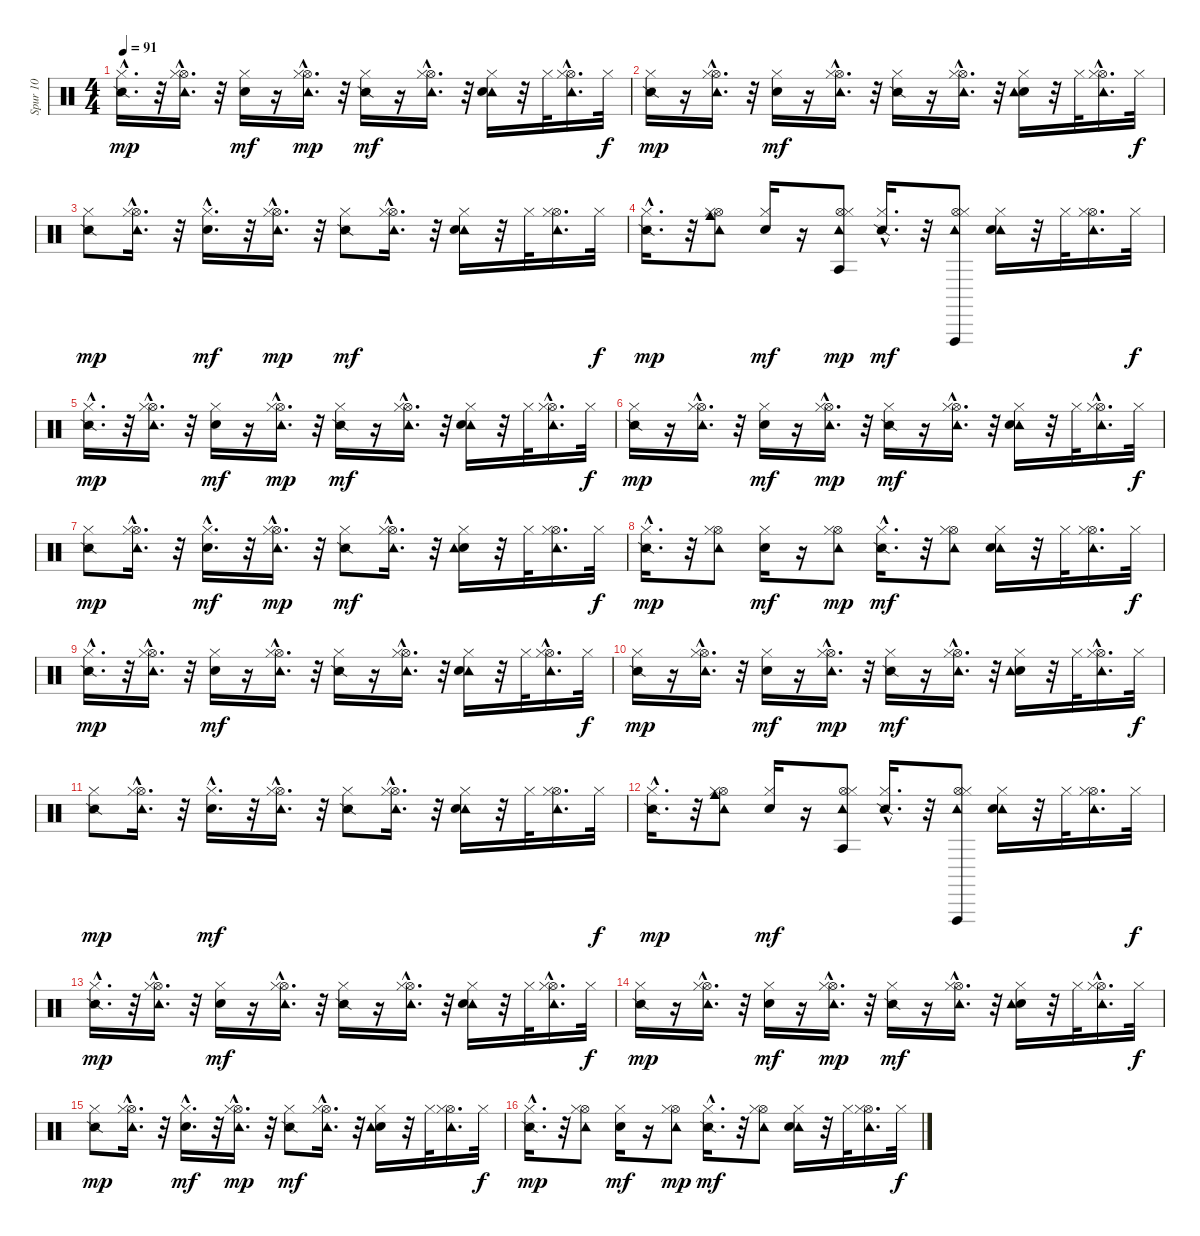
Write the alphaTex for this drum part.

\track ("Spur 10" "Spur 10") {instrument percussion}
\staff {score}
\articulation defaults
\ts (4 4)
\tempo 91
\clef neutral
\ks c
("Snare (side stick) 2"{hac} "Hi-Hat (closed)").16{d dy mp} r.32 ("Tambourine (hit)" "Hi-Hat (open)"{hac} "Hi-Hat (closed)").16{d} r.32 ("Electric Snare (hit)" "Hi-Hat (closed)").16{dy mf} r.16 ("Tambourine (hit)" "Hi-Hat (open)"{hac} "Hi-Hat (closed)").16{d dy mp} r.32 ("Snare (side stick) 2" "Hi-Hat (closed)").16{dy mf} r.16 ("Tambourine (hit)" "Hi-Hat (open)"{hac} "Hi-Hat (closed)").16{d} r.32 ("Tambourine (hit)" "Electric Snare (hit)" "Hi-Hat (closed)").16 r.32 "Hi-Hat (closed)".32 ("Tambourine (hit)" "Hi-Hat (open)"{hac} "Hi-Hat (closed)").16{d} "Hi-Hat (closed)".32{dy f} |
("Snare (side stick) 2" "Hi-Hat (closed)").16{dy mp} r.16 ("Tambourine (hit)" "Hi-Hat (open)"{hac} "Hi-Hat (closed)").16{d} r.32 ("Electric Snare (hit)" "Hi-Hat (closed)").16{dy mf} r.16 ("Tambourine (hit)" "Hi-Hat (open)"{hac} "Hi-Hat (closed)").16{d} r.32 ("Snare (side stick) 2" "Hi-Hat (closed)").16 r.16 ("Tambourine (hit)" "Hi-Hat (open)"{hac} "Hi-Hat (closed)").16{d} r.32 ("Electric Snare (hit)" "Tambourine (hit)" "Hi-Hat (closed)").16 r.32 "Hi-Hat (closed)".32 ("Tambourine (hit)" "Hi-Hat (open)"{hac} "Hi-Hat (closed)").16{d} "Hi-Hat (closed)".32{dy f} |
("Snare (side stick) 2" "Hi-Hat (closed)").8{dy mp} ("Tambourine (hit)" "Hi-Hat (open)"{hac} "Hi-Hat (closed)").16{d} r.32 ("Electric Snare (hit)"{hac} "Hi-Hat (closed)").16{d dy mf} r.32 ("Tambourine (hit)" "Hi-Hat (open)"{hac} "Hi-Hat (closed)").16{d dy mp} r.32 ("Snare (side stick) 2" "Hi-Hat (closed)").8{dy mf} ("Tambourine (hit)" "Hi-Hat (open)"{hac} "Hi-Hat (closed)").16{d} r.32 ("Tambourine (hit)" "Electric Snare (hit)" "Hi-Hat (closed)").16 r.32 "Hi-Hat (closed)".32 ("Tambourine (hit)" "Hi-Hat (open)" "Hi-Hat (closed)").16{d} "Hi-Hat (closed)".32{dy f} |
("Snare (side stick) 2"{hac} "Hi-Hat (closed)").16{d dy mp} r.32 ("Tambourine (hit)" "Hi-Hat (open)" "Cowbell medium (hit)" "Hi-Hat (closed)").8 ("Electric Snare (hit)" "Hi-Hat (closed)").16{dy mf} r.16 ("Tambourine (hit)" "Hi-Hat (open)" "Hi-Hat (closed)" "Agogo tow (hit)").8{dy mp} ("Snare (side stick) 2"{hac} "Hi-Hat (closed)").16{d dy mf} r.32 ("Tambourine (hit)" "Vibraslap (hit)" "Hi-Hat (open)" "Hi-Hat (closed)").8 ("Tambourine (hit)" "Electric Snare (hit)" "Hi-Hat (closed)").16 r.32 "Hi-Hat (closed)".32 ("Tambourine (hit)" "Hi-Hat (open)" "Hi-Hat (closed)").16{d} "Hi-Hat (closed)".32{dy f} |
("Snare (side stick) 2"{hac} "Hi-Hat (closed)").16{d dy mp} r.32 ("Tambourine (hit)" "Hi-Hat (open)"{hac} "Hi-Hat (closed)").16{d} r.32 ("Electric Snare (hit)" "Hi-Hat (closed)").16{dy mf} r.16 ("Tambourine (hit)" "Hi-Hat (open)"{hac} "Hi-Hat (closed)").16{d dy mp} r.32 ("Snare (side stick) 2" "Hi-Hat (closed)").16{dy mf} r.16 ("Tambourine (hit)" "Hi-Hat (open)"{hac} "Hi-Hat (closed)").16{d} r.32 ("Tambourine (hit)" "Electric Snare (hit)" "Hi-Hat (closed)").16 r.32 "Hi-Hat (closed)".32 ("Tambourine (hit)" "Hi-Hat (open)"{hac} "Hi-Hat (closed)").16{d} "Hi-Hat (closed)".32{dy f} |
("Snare (side stick) 2" "Hi-Hat (closed)").16{dy mp} r.16 ("Tambourine (hit)" "Hi-Hat (open)"{hac} "Hi-Hat (closed)").16{d} r.32 ("Electric Snare (hit)" "Hi-Hat (closed)").16{dy mf} r.16 ("Tambourine (hit)" "Hi-Hat (open)"{hac} "Hi-Hat (closed)").16{d dy mp} r.32 ("Snare (side stick) 2" "Hi-Hat (closed)").16{dy mf} r.16 ("Tambourine (hit)" "Hi-Hat (open)"{hac} "Hi-Hat (closed)").16{d} r.32 ("Tambourine (hit)" "Electric Snare (hit)" "Hi-Hat (closed)").16 r.32 "Hi-Hat (closed)".32 ("Tambourine (hit)" "Hi-Hat (open)"{hac} "Hi-Hat (closed)").16{d} "Hi-Hat (closed)".32{dy f} |
("Snare (side stick) 2" "Hi-Hat (closed)").8{dy mp} ("Tambourine (hit)" "Hi-Hat (open)"{hac} "Hi-Hat (closed)").16{d} r.32 ("Electric Snare (hit)"{hac} "Hi-Hat (closed)").16{d dy mf} r.32 ("Tambourine (hit)" "Hi-Hat (open)"{hac} "Hi-Hat (closed)").16{d dy mp} r.32 ("Snare (side stick) 2" "Hi-Hat (closed)").8{dy mf} ("Tambourine (hit)" "Hi-Hat (open)"{hac} "Hi-Hat (closed)").16{d} r.32 ("Electric Snare (hit)" "Tambourine (hit)" "Hi-Hat (closed)").16 r.32 "Hi-Hat (closed)".32 ("Tambourine (hit)" "Hi-Hat (open)" "Hi-Hat (closed)").16{d} "Hi-Hat (closed)".32{dy f} |
("Snare (side stick) 2"{hac} "Hi-Hat (closed)").16{d dy mp} r.32 ("Tambourine (hit)" "Hi-Hat (open)" "Hi-Hat (closed)").8 ("Electric Snare (hit)" "Hi-Hat (closed)").16{dy mf} r.16 ("Tambourine (hit)" "Hi-Hat (open)" "Hi-Hat (closed)").8{dy mp} ("Snare (side stick) 2"{hac} "Hi-Hat (closed)").16{d dy mf} r.32 ("Tambourine (hit)" "Hi-Hat (open)" "Hi-Hat (closed)").8 ("Tambourine (hit)" "Electric Snare (hit)" "Hi-Hat (closed)").16 r.32 "Hi-Hat (closed)".32 ("Tambourine (hit)" "Hi-Hat (open)" "Hi-Hat (closed)").16{d} "Hi-Hat (closed)".32{dy f} |
("Snare (side stick) 2"{hac} "Hi-Hat (closed)").16{d dy mp} r.32 ("Tambourine (hit)" "Hi-Hat (open)"{hac} "Hi-Hat (closed)").16{d} r.32 ("Electric Snare (hit)" "Hi-Hat (closed)").16{dy mf} r.16 ("Tambourine (hit)" "Hi-Hat (open)"{hac} "Hi-Hat (closed)").16{d} r.32 ("Snare (side stick) 2" "Hi-Hat (closed)").16 r.16 ("Tambourine (hit)" "Hi-Hat (open)"{hac} "Hi-Hat (closed)").16{d} r.32 ("Tambourine (hit)" "Electric Snare (hit)" "Hi-Hat (closed)").16 r.32 "Hi-Hat (closed)".32 ("Tambourine (hit)" "Hi-Hat (open)"{hac} "Hi-Hat (closed)").16{d} "Hi-Hat (closed)".32{dy f} |
("Snare (side stick) 2" "Hi-Hat (closed)").16{dy mp} r.16 ("Tambourine (hit)" "Hi-Hat (open)"{hac} "Hi-Hat (closed)").16{d} r.32 ("Electric Snare (hit)" "Hi-Hat (closed)").16{dy mf} r.16 ("Tambourine (hit)" "Hi-Hat (open)"{hac} "Hi-Hat (closed)").16{d dy mp} r.32 ("Snare (side stick) 2" "Hi-Hat (closed)").16{dy mf} r.16 ("Tambourine (hit)" "Hi-Hat (open)"{hac} "Hi-Hat (closed)").16{d} r.32 ("Electric Snare (hit)" "Tambourine (hit)" "Hi-Hat (closed)").16 r.32 "Hi-Hat (closed)".32 ("Tambourine (hit)" "Hi-Hat (open)"{hac} "Hi-Hat (closed)").16{d} "Hi-Hat (closed)".32{dy f} |
("Snare (side stick) 2" "Hi-Hat (closed)").8{dy mp} ("Tambourine (hit)" "Hi-Hat (open)"{hac} "Hi-Hat (closed)").16{d} r.32 ("Electric Snare (hit)"{hac} "Hi-Hat (closed)").16{d dy mf} r.32 ("Tambourine (hit)" "Hi-Hat (open)"{hac} "Hi-Hat (closed)").16{d} r.32 ("Snare (side stick) 2" "Hi-Hat (closed)").8 ("Tambourine (hit)" "Hi-Hat (open)"{hac} "Hi-Hat (closed)").16{d} r.32 ("Tambourine (hit)" "Electric Snare (hit)" "Hi-Hat (closed)").16 r.32 "Hi-Hat (closed)".32 ("Tambourine (hit)" "Hi-Hat (open)" "Hi-Hat (closed)").16{d} "Hi-Hat (closed)".32{dy f} |
("Snare (side stick) 2"{hac} "Hi-Hat (closed)").16{d dy mp} r.32 ("Tambourine (hit)" "Hi-Hat (open)" "Cowbell medium (hit)" "Hi-Hat (closed)").8 ("Electric Snare (hit)" "Hi-Hat (closed)").16{dy mf} r.16 ("Tambourine (hit)" "Hi-Hat (open)" "Hi-Hat (closed)" "Agogo tow (hit)").8 ("Snare (side stick) 2"{hac} "Hi-Hat (closed)").16{d} r.32 ("Tambourine (hit)" "Vibraslap (hit)" "Hi-Hat (open)" "Hi-Hat (closed)").8 ("Tambourine (hit)" "Electric Snare (hit)" "Hi-Hat (closed)").16 r.32 "Hi-Hat (closed)".32 ("Tambourine (hit)" "Hi-Hat (open)" "Hi-Hat (closed)").16{d} "Hi-Hat (closed)".32{dy f} |
("Snare (side stick) 2"{hac} "Hi-Hat (closed)").16{d dy mp} r.32 ("Tambourine (hit)" "Hi-Hat (open)"{hac} "Hi-Hat (closed)").16{d} r.32 ("Electric Snare (hit)" "Hi-Hat (closed)").16{dy mf} r.16 ("Tambourine (hit)" "Hi-Hat (open)"{hac} "Hi-Hat (closed)").16{d} r.32 ("Snare (side stick) 2" "Hi-Hat (closed)").16 r.16 ("Tambourine (hit)" "Hi-Hat (open)"{hac} "Hi-Hat (closed)").16{d} r.32 ("Tambourine (hit)" "Electric Snare (hit)" "Hi-Hat (closed)").16 r.32 "Hi-Hat (closed)".32 ("Tambourine (hit)" "Hi-Hat (open)"{hac} "Hi-Hat (closed)").16{d} "Hi-Hat (closed)".32{dy f} |
("Snare (side stick) 2" "Hi-Hat (closed)").16{dy mp} r.16 ("Tambourine (hit)" "Hi-Hat (open)"{hac} "Hi-Hat (closed)").16{d} r.32 ("Electric Snare (hit)" "Hi-Hat (closed)").16{dy mf} r.16 ("Tambourine (hit)" "Hi-Hat (open)"{hac} "Hi-Hat (closed)").16{d dy mp} r.32 ("Snare (side stick) 2" "Hi-Hat (closed)").16{dy mf} r.16 ("Tambourine (hit)" "Hi-Hat (open)"{hac} "Hi-Hat (closed)").16{d} r.32 ("Electric Snare (hit)" "Tambourine (hit)" "Hi-Hat (closed)").16 r.32 "Hi-Hat (closed)".32 ("Tambourine (hit)" "Hi-Hat (open)"{hac} "Hi-Hat (closed)").16{d} "Hi-Hat (closed)".32{dy f} |
("Snare (side stick) 2" "Hi-Hat (closed)").8{dy mp} ("Tambourine (hit)" "Hi-Hat (open)"{hac} "Hi-Hat (closed)").16{d} r.32 ("Electric Snare (hit)"{hac} "Hi-Hat (closed)").16{d dy mf} r.32 ("Tambourine (hit)" "Hi-Hat (open)"{hac} "Hi-Hat (closed)").16{d dy mp} r.32 ("Snare (side stick) 2" "Hi-Hat (closed)").8{dy mf} ("Tambourine (hit)" "Hi-Hat (open)"{hac} "Hi-Hat (closed)").16{d} r.32 ("Electric Snare (hit)" "Tambourine (hit)" "Hi-Hat (closed)").16 r.32 "Hi-Hat (closed)".32 ("Tambourine (hit)" "Hi-Hat (open)" "Hi-Hat (closed)").16{d} "Hi-Hat (closed)".32{dy f} |
("Snare (side stick) 2"{hac} "Hi-Hat (closed)").16{d dy mp} r.32 ("Tambourine (hit)" "Hi-Hat (open)" "Hi-Hat (closed)").8 ("Electric Snare (hit)" "Hi-Hat (closed)").16{dy mf} r.16 ("Tambourine (hit)" "Hi-Hat (open)" "Hi-Hat (closed)").8{dy mp} ("Snare (side stick) 2"{hac} "Hi-Hat (closed)").16{d dy mf} r.32 ("Tambourine (hit)" "Hi-Hat (open)" "Hi-Hat (closed)").8 ("Tambourine (hit)" "Electric Snare (hit)" "Hi-Hat (closed)").16 r.32 "Hi-Hat (closed)".32 ("Tambourine (hit)" "Hi-Hat (open)" "Hi-Hat (closed)").16{d} "Hi-Hat (closed)".32{dy f}
